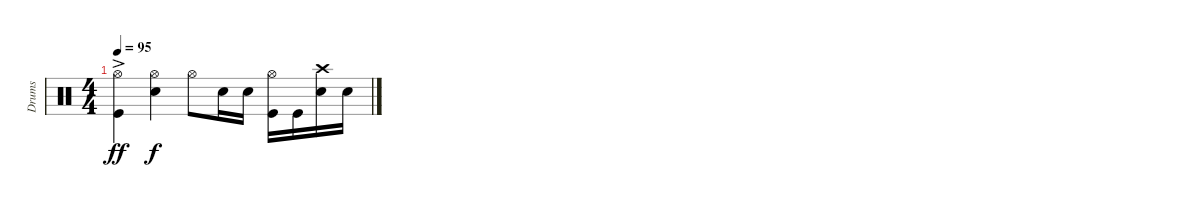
\track ("Drums" "Drums") {instrument percussion}
\staff {score}
\articulation defaults
\ts (4 4)
\tempo 95
\clef neutral
\ks c
("Kick (hit)"{ac} "Hi-Hat (open)").4{dy ff} ("Snare (hit) 2" "Hi-Hat (open)").4{dy f} "Hi-Hat (open)".8 "Snare (hit) 2".16 "Snare (hit) 2".16 ("Kick (hit)" "Hi-Hat (open)").16 "Kick (hit)".16 ("Snare (hit) 2" "Crash high (hit)").16 "Snare (hit) 2".16
